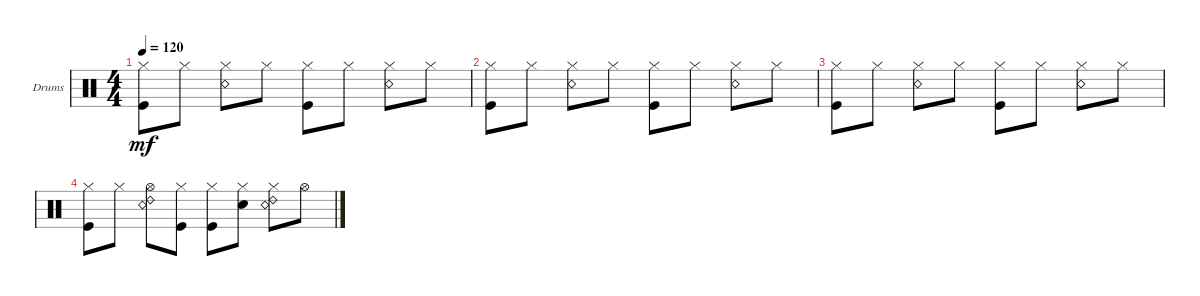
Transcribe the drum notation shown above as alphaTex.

\defaultSystemsLayout 4
\bracketExtendMode groupsimilarinstruments
\firstSystemTrackNameOrientation horizontal
\otherSystemsTrackNameOrientation horizontal
\track ("Drumkit" "Drums") {instrument percussion}
\staff {score}
\articulation defaults
\ts (4 4)
\tempo 120
\clef neutral
\ks c
("Hi-Hat (closed)" "Kick (hit)").8{dy mf} "Hi-Hat (closed)".8 ("Hi-Hat (closed)" "Snare (rim shot)").8 "Hi-Hat (closed)".8 ("Hi-Hat (closed)" "Kick (hit)").8 "Hi-Hat (closed)".8 ("Hi-Hat (closed)" "Snare (rim shot)").8 "Hi-Hat (closed)".8 |
("Hi-Hat (closed)" "Kick (hit)").8 "Hi-Hat (closed)".8 ("Hi-Hat (closed)" "Snare (rim shot)").8 "Hi-Hat (closed)".8 ("Hi-Hat (closed)" "Kick (hit)").8 "Hi-Hat (closed)".8 ("Hi-Hat (closed)" "Snare (rim shot)").8 "Hi-Hat (closed)".8 |
("Hi-Hat (closed)" "Kick (hit)").8 "Hi-Hat (closed)".8 ("Hi-Hat (closed)" "Snare (rim shot)").8 "Hi-Hat (closed)".8 ("Hi-Hat (closed)" "Kick (hit)").8 "Hi-Hat (closed)".8 ("Hi-Hat (closed)" "Snare (rim shot)").8 "Hi-Hat (closed)".8 |
("Hi-Hat (closed)" "Kick (hit)").8 "Hi-Hat (closed)".8 ("Hi-Hat (open)" "Snare (rim shot)" "Ride (bell) 2").8 ("Hi-Hat (closed)" "Kick (hit)").8 ("Hi-Hat (closed)" "Kick (hit)").8 ("Hi-Hat (closed)" "Snare (hit) 2").8 ("Hi-Hat (closed)" "Snare (rim shot)" "Ride (bell) 2").8 "Hi-Hat (open)".8
